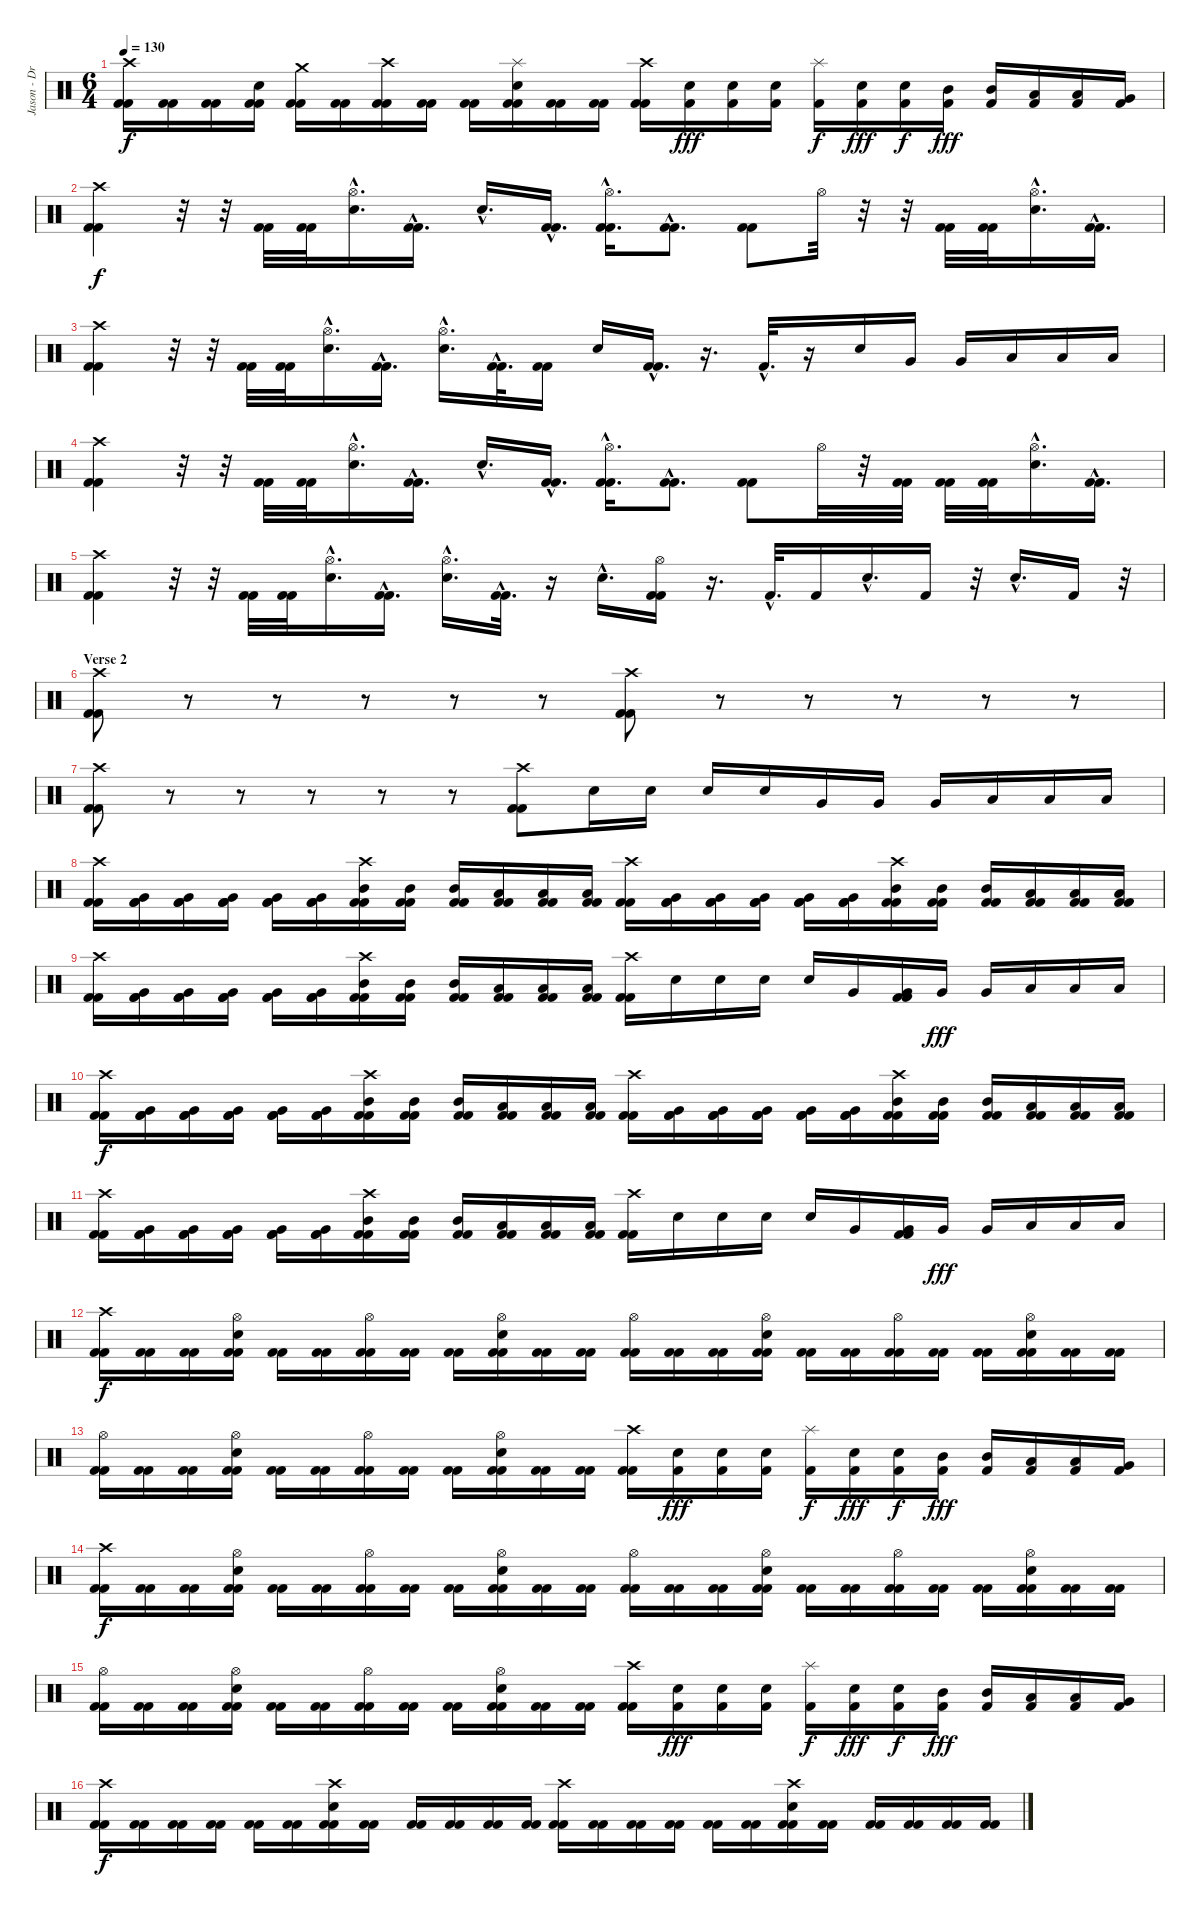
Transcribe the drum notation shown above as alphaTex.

\track ("Jason - Drums" "Jason - Dr") {instrument percussion}
\staff {score}
\articulation defaults
\ts (6 4)
\tempo 130
\clef neutral
\ks c
("Crash high (hit)" "Kick (hit) 2" "Kick (hit) 2").16{dy f} ("Kick (hit) 2" "Kick (hit) 2").16 ("Kick (hit) 2" "Kick (hit) 2").16 ("Electric Snare (hit)" "Kick (hit) 2" "Kick (hit) 2").16 ("Crash medium (hit)" "Kick (hit) 2" "Kick (hit) 2").16 ("Kick (hit) 2" "Kick (hit) 2").16 ("Crash high (hit)" "Kick (hit) 2" "Kick (hit) 2").16 ("Kick (hit) 2" "Kick (hit) 2").16 ("Kick (hit) 2" "Kick (hit) 2").16 ("Splash (hit)" "Electric Snare (hit)" "Kick (hit) 2" "Kick (hit) 2").16 ("Kick (hit) 2" "Kick (hit) 2").16 ("Kick (hit) 2" "Kick (hit) 2").16 ("Crash high (hit)" "Kick (hit) 2" "Kick (hit) 2").16 ("Electric Snare (hit)" "Kick (hit) 2").16{dy fff} ("Electric Snare (hit)" "Kick (hit) 2").16 ("Electric Snare (hit)" "Kick (hit) 2").16 ("Splash (hit)" "Kick (hit) 2").16{dy f} ("Electric Snare (hit)" "Kick (hit) 2").16{dy fff} ("Electric Snare (hit)" "Kick (hit) 2").16{dy f} ("Mid Tom (hit)" "Kick (hit) 2").16{dy fff} ("Mid Tom (hit)" "Kick (hit) 2").16 ("Low Tom (hit)" "Kick (hit) 2").16 ("Low Tom (hit)" "Kick (hit) 2").16 ("Very Low Tom (hit)" "Kick (hit) 2").16 |
("Crash high (hit)" "Kick (hit) 2" "Kick (hit) 2").4{dy f} r.32 r.32 ("Kick (hit) 2" "Kick (hit) 2").32 ("Kick (hit) 2" "Kick (hit) 2").32 ("Hi-Hat (open)"{hac} "Electric Snare (hit)"{hac}).16{d} ("Kick (hit) 2"{hac} "Kick (hit) 2"{hac}).16{d} "Electric Snare (hit)"{hac}.16{d} ("Kick (hit) 2"{hac} "Kick (hit) 2"{hac}).16{d} ("Hi-Hat (open)"{hac} "Kick (hit) 2"{hac} "Kick (hit) 2"{hac}).16{d} ("Kick (hit) 2"{hac} "Kick (hit) 2"{hac}).8{d} ("Kick (hit) 2" "Kick (hit) 2").8 "Hi-Hat (open)".32 r.32 r.32 ("Kick (hit) 2" "Kick (hit) 2").32 ("Kick (hit) 2" "Kick (hit) 2").32 ("Hi-Hat (open)"{hac} "Electric Snare (hit)"{hac}).16{d} ("Kick (hit) 2"{hac} "Kick (hit) 2"{hac}).16{d} |
("Crash high (hit)" "Kick (hit) 2" "Kick (hit) 2").4 r.32 r.32 ("Kick (hit) 2" "Kick (hit) 2").32 ("Kick (hit) 2" "Kick (hit) 2").32 ("Hi-Hat (open)"{hac} "Electric Snare (hit)"{hac}).16{d} ("Kick (hit) 2"{hac} "Kick (hit) 2"{hac}).16{d} ("Hi-Hat (open)"{hac} "Electric Snare (hit)"{hac}).16{d} ("Kick (hit) 2"{hac} "Kick (hit) 2"{hac}).32{d} ("Kick (hit) 2" "Kick (hit) 2").16 "Electric Snare (hit)".16 ("Kick (hit) 2"{hac} "Kick (hit) 2"{hac}).16{d} r.16{d} "Kick (hit) 2"{hac}.32{d} r.16 "Electric Snare (hit)".16 "Very Low Tom (hit)".16 "Very Low Tom (hit)".16 "Low Floor Tom (hit)".16 "Low Floor Tom (hit)".16 "Low Floor Tom (hit)".16 |
("Crash high (hit)" "Kick (hit) 2" "Kick (hit) 2").4 r.32 r.32 ("Kick (hit) 2" "Kick (hit) 2").32 ("Kick (hit) 2" "Kick (hit) 2").32 ("Hi-Hat (open)"{hac} "Electric Snare (hit)"{hac}).16{d} ("Kick (hit) 2"{hac} "Kick (hit) 2"{hac}).16{d} "Electric Snare (hit)"{hac}.16{d} ("Kick (hit) 2"{hac} "Kick (hit) 2"{hac}).16{d} ("Hi-Hat (open)"{hac} "Kick (hit) 2"{hac} "Kick (hit) 2"{hac}).16{d} ("Kick (hit) 2"{hac} "Kick (hit) 2"{hac}).8{d} ("Kick (hit) 2" "Kick (hit) 2").8 "Hi-Hat (open)".32 r.32 ("Kick (hit) 2" "Kick (hit) 2").32 ("Kick (hit) 2" "Kick (hit) 2").32 ("Kick (hit) 2" "Kick (hit) 2").32 ("Hi-Hat (open)"{hac} "Electric Snare (hit)"{hac}).16{d} ("Kick (hit) 2"{hac} "Kick (hit) 2"{hac}).16{d} |
("Crash high (hit)" "Kick (hit) 2" "Kick (hit) 2").4 r.32 r.32 ("Kick (hit) 2" "Kick (hit) 2").32 ("Kick (hit) 2" "Kick (hit) 2").32 ("Hi-Hat (open)"{hac} "Electric Snare (hit)"{hac}).16{d} ("Kick (hit) 2"{hac} "Kick (hit) 2"{hac}).16{d} ("Hi-Hat (open)"{hac} "Electric Snare (hit)"{hac}).16{d} ("Kick (hit) 2"{hac} "Kick (hit) 2"{hac}).32{d} r.16 "Electric Snare (hit)"{hac}.16{d} ("Hi-Hat (open)" "Kick (hit) 2" "Kick (hit) 2").16 r.16{d} "Kick (hit) 2"{hac}.32{d} "Kick (hit) 2".16 "Electric Snare (hit)"{hac}.16{d} "Kick (hit) 2".16 r.32 "Electric Snare (hit)"{hac}.16{d} "Kick (hit) 2".16 r.32 |
\section ("" "Verse 2")
("Crash high (hit)" "Kick (hit) 2" "Kick (hit) 2").8 r.8 r.8 r.8 r.8 r.8 ("Crash high (hit)" "Kick (hit) 2" "Kick (hit) 2").8 r.8 r.8 r.8 r.8 r.8 |
("Crash high (hit)" "Kick (hit) 2" "Kick (hit) 2").8 r.8 r.8 r.8 r.8 r.8 ("Crash high (hit)" "Kick (hit) 2" "Kick (hit) 2").8 "Snare (hit) 2".16 "Snare (hit) 2".16 "Snare (hit) 2".16 "Snare (hit) 2".16 "Very Low Tom (hit)".16 "Very Low Tom (hit)".16 "Very Low Tom (hit)".16 "Low Floor Tom (hit)".16 "Low Floor Tom (hit)".16 "Low Floor Tom (hit)".16 |
("Crash high (hit)" "Kick (hit) 2" "Kick (hit) 2").16 ("Very Low Tom (hit)" "Kick (hit) 2" "Kick (hit) 2").16 ("Very Low Tom (hit)" "Kick (hit) 2" "Kick (hit) 2").16 ("Very Low Tom (hit)" "Kick (hit) 2" "Kick (hit) 2").16 ("Very Low Tom (hit)" "Kick (hit) 2" "Kick (hit) 2").16 ("Very Low Tom (hit)" "Kick (hit) 2" "Kick (hit) 2").16 ("Crash high (hit)" "Mid Tom (hit)" "Kick (hit) 2" "Kick (hit) 2").16 ("Mid Tom (hit)" "Kick (hit) 2" "Kick (hit) 2").16 ("Mid Tom (hit)" "Kick (hit) 2" "Kick (hit) 2").16 ("Low Tom (hit)" "Kick (hit) 2" "Kick (hit) 2").16 ("Low Tom (hit)" "Kick (hit) 2" "Kick (hit) 2").16 ("Low Tom (hit)" "Kick (hit) 2" "Kick (hit) 2").16 ("Crash high (hit)" "Kick (hit) 2" "Kick (hit) 2").16 ("Very Low Tom (hit)" "Kick (hit) 2" "Kick (hit) 2").16 ("Very Low Tom (hit)" "Kick (hit) 2" "Kick (hit) 2").16 ("Very Low Tom (hit)" "Kick (hit) 2" "Kick (hit) 2").16 ("Very Low Tom (hit)" "Kick (hit) 2" "Kick (hit) 2").16 ("Very Low Tom (hit)" "Kick (hit) 2" "Kick (hit) 2").16 ("Crash high (hit)" "Mid Tom (hit)" "Kick (hit) 2" "Kick (hit) 2").16 ("Mid Tom (hit)" "Kick (hit) 2" "Kick (hit) 2").16 ("Mid Tom (hit)" "Kick (hit) 2" "Kick (hit) 2").16 ("Low Tom (hit)" "Kick (hit) 2" "Kick (hit) 2").16 ("Low Tom (hit)" "Kick (hit) 2" "Kick (hit) 2").16 ("Low Tom (hit)" "Kick (hit) 2" "Kick (hit) 2").16 |
("Crash high (hit)" "Kick (hit) 2" "Kick (hit) 2").16 ("Very Low Tom (hit)" "Kick (hit) 2" "Kick (hit) 2").16 ("Very Low Tom (hit)" "Kick (hit) 2" "Kick (hit) 2").16 ("Very Low Tom (hit)" "Kick (hit) 2" "Kick (hit) 2").16 ("Very Low Tom (hit)" "Kick (hit) 2" "Kick (hit) 2").16 ("Very Low Tom (hit)" "Kick (hit) 2" "Kick (hit) 2").16 ("Crash high (hit)" "Mid Tom (hit)" "Kick (hit) 2" "Kick (hit) 2").16 ("Mid Tom (hit)" "Kick (hit) 2" "Kick (hit) 2").16 ("Mid Tom (hit)" "Kick (hit) 2" "Kick (hit) 2").16 ("Low Tom (hit)" "Kick (hit) 2" "Kick (hit) 2").16 ("Low Tom (hit)" "Kick (hit) 2" "Kick (hit) 2").16 ("Low Tom (hit)" "Kick (hit) 2" "Kick (hit) 2").16 ("Crash high (hit)" "Kick (hit) 2" "Kick (hit) 2").16 "Electric Snare (hit)".16 "Electric Snare (hit)".16 "Electric Snare (hit)".16 "Electric Snare (hit)".16 "Very Low Tom (hit)".16 ("Very Low Tom (hit)" "Kick (hit) 2" "Kick (hit) 2").16 "Very Low Tom (hit)".16{dy fff} "Very Low Tom (hit)".16 "Low Floor Tom (hit)".16 "Low Floor Tom (hit)".16 "Low Floor Tom (hit)".16 |
("Crash high (hit)" "Kick (hit) 2" "Kick (hit) 2").16{dy f} ("Very Low Tom (hit)" "Kick (hit) 2" "Kick (hit) 2").16 ("Very Low Tom (hit)" "Kick (hit) 2" "Kick (hit) 2").16 ("Very Low Tom (hit)" "Kick (hit) 2" "Kick (hit) 2").16 ("Very Low Tom (hit)" "Kick (hit) 2" "Kick (hit) 2").16 ("Very Low Tom (hit)" "Kick (hit) 2" "Kick (hit) 2").16 ("Crash high (hit)" "Mid Tom (hit)" "Kick (hit) 2" "Kick (hit) 2").16 ("Mid Tom (hit)" "Kick (hit) 2" "Kick (hit) 2").16 ("Mid Tom (hit)" "Kick (hit) 2" "Kick (hit) 2").16 ("Low Tom (hit)" "Kick (hit) 2" "Kick (hit) 2").16 ("Low Tom (hit)" "Kick (hit) 2" "Kick (hit) 2").16 ("Low Tom (hit)" "Kick (hit) 2" "Kick (hit) 2").16 ("Crash high (hit)" "Kick (hit) 2" "Kick (hit) 2").16 ("Very Low Tom (hit)" "Kick (hit) 2" "Kick (hit) 2").16 ("Very Low Tom (hit)" "Kick (hit) 2" "Kick (hit) 2").16 ("Very Low Tom (hit)" "Kick (hit) 2" "Kick (hit) 2").16 ("Very Low Tom (hit)" "Kick (hit) 2" "Kick (hit) 2").16 ("Very Low Tom (hit)" "Kick (hit) 2" "Kick (hit) 2").16 ("Crash high (hit)" "Mid Tom (hit)" "Kick (hit) 2" "Kick (hit) 2").16 ("Mid Tom (hit)" "Kick (hit) 2" "Kick (hit) 2").16 ("Mid Tom (hit)" "Kick (hit) 2" "Kick (hit) 2").16 ("Low Tom (hit)" "Kick (hit) 2" "Kick (hit) 2").16 ("Low Tom (hit)" "Kick (hit) 2" "Kick (hit) 2").16 ("Low Tom (hit)" "Kick (hit) 2" "Kick (hit) 2").16 |
("Crash high (hit)" "Kick (hit) 2" "Kick (hit) 2").16 ("Very Low Tom (hit)" "Kick (hit) 2" "Kick (hit) 2").16 ("Very Low Tom (hit)" "Kick (hit) 2" "Kick (hit) 2").16 ("Very Low Tom (hit)" "Kick (hit) 2" "Kick (hit) 2").16 ("Very Low Tom (hit)" "Kick (hit) 2" "Kick (hit) 2").16 ("Very Low Tom (hit)" "Kick (hit) 2" "Kick (hit) 2").16 ("Crash high (hit)" "Mid Tom (hit)" "Kick (hit) 2" "Kick (hit) 2").16 ("Mid Tom (hit)" "Kick (hit) 2" "Kick (hit) 2").16 ("Mid Tom (hit)" "Kick (hit) 2" "Kick (hit) 2").16 ("Low Tom (hit)" "Kick (hit) 2" "Kick (hit) 2").16 ("Low Tom (hit)" "Kick (hit) 2" "Kick (hit) 2").16 ("Low Tom (hit)" "Kick (hit) 2" "Kick (hit) 2").16 ("Crash high (hit)" "Kick (hit) 2" "Kick (hit) 2").16 "Electric Snare (hit)".16 "Electric Snare (hit)".16 "Electric Snare (hit)".16 "Electric Snare (hit)".16 "Very Low Tom (hit)".16 ("Very Low Tom (hit)" "Kick (hit) 2" "Kick (hit) 2").16 "Very Low Tom (hit)".16{dy fff} "Very Low Tom (hit)".16 "Low Floor Tom (hit)".16 "Low Floor Tom (hit)".16 "Low Floor Tom (hit)".16 |
("Crash high (hit)" "Kick (hit) 2" "Kick (hit) 2").16{dy f} ("Kick (hit) 2" "Kick (hit) 2").16 ("Kick (hit) 2" "Kick (hit) 2").16 ("Hi-Hat (open)" "Electric Snare (hit)" "Kick (hit) 2" "Kick (hit) 2").16 ("Kick (hit) 2" "Kick (hit) 2").16 ("Kick (hit) 2" "Kick (hit) 2").16 ("Hi-Hat (open)" "Kick (hit) 2" "Kick (hit) 2").16 ("Kick (hit) 2" "Kick (hit) 2").16 ("Kick (hit) 2" "Kick (hit) 2").16 ("Hi-Hat (open)" "Electric Snare (hit)" "Kick (hit) 2" "Kick (hit) 2").16 ("Kick (hit) 2" "Kick (hit) 2").16 ("Kick (hit) 2" "Kick (hit) 2").16 ("Hi-Hat (open)" "Kick (hit) 2" "Kick (hit) 2").16 ("Kick (hit) 2" "Kick (hit) 2").16 ("Kick (hit) 2" "Kick (hit) 2").16 ("Hi-Hat (open)" "Electric Snare (hit)" "Kick (hit) 2" "Kick (hit) 2").16 ("Kick (hit) 2" "Kick (hit) 2").16 ("Kick (hit) 2" "Kick (hit) 2").16 ("Hi-Hat (open)" "Kick (hit) 2" "Kick (hit) 2").16 ("Kick (hit) 2" "Kick (hit) 2").16 ("Kick (hit) 2" "Kick (hit) 2").16 ("Hi-Hat (open)" "Electric Snare (hit)" "Kick (hit) 2" "Kick (hit) 2").16 ("Kick (hit) 2" "Kick (hit) 2").16 ("Kick (hit) 2" "Kick (hit) 2").16 |
("Hi-Hat (open)" "Kick (hit) 2" "Kick (hit) 2").16 ("Kick (hit) 2" "Kick (hit) 2").16 ("Kick (hit) 2" "Kick (hit) 2").16 ("Hi-Hat (open)" "Electric Snare (hit)" "Kick (hit) 2" "Kick (hit) 2").16 ("Kick (hit) 2" "Kick (hit) 2").16 ("Kick (hit) 2" "Kick (hit) 2").16 ("Hi-Hat (open)" "Kick (hit) 2" "Kick (hit) 2").16 ("Kick (hit) 2" "Kick (hit) 2").16 ("Kick (hit) 2" "Kick (hit) 2").16 ("Hi-Hat (open)" "Electric Snare (hit)" "Kick (hit) 2" "Kick (hit) 2").16 ("Kick (hit) 2" "Kick (hit) 2").16 ("Kick (hit) 2" "Kick (hit) 2").16 ("Crash high (hit)" "Kick (hit) 2" "Kick (hit) 2").16 ("Electric Snare (hit)" "Kick (hit) 2").16{dy fff} ("Electric Snare (hit)" "Kick (hit) 2").16 ("Electric Snare (hit)" "Kick (hit) 2").16 ("Splash (hit)" "Kick (hit) 2").16{dy f} ("Electric Snare (hit)" "Kick (hit) 2").16{dy fff} ("Electric Snare (hit)" "Kick (hit) 2").16{dy f} ("Mid Tom (hit)" "Kick (hit) 2").16{dy fff} ("Mid Tom (hit)" "Kick (hit) 2").16 ("Low Tom (hit)" "Kick (hit) 2").16 ("Low Tom (hit)" "Kick (hit) 2").16 ("Very Low Tom (hit)" "Kick (hit) 2").16 |
("Crash high (hit)" "Kick (hit) 2" "Kick (hit) 2").16{dy f} ("Kick (hit) 2" "Kick (hit) 2").16 ("Kick (hit) 2" "Kick (hit) 2").16 ("Hi-Hat (open)" "Electric Snare (hit)" "Kick (hit) 2" "Kick (hit) 2").16 ("Kick (hit) 2" "Kick (hit) 2").16 ("Kick (hit) 2" "Kick (hit) 2").16 ("Hi-Hat (open)" "Kick (hit) 2" "Kick (hit) 2").16 ("Kick (hit) 2" "Kick (hit) 2").16 ("Kick (hit) 2" "Kick (hit) 2").16 ("Hi-Hat (open)" "Electric Snare (hit)" "Kick (hit) 2" "Kick (hit) 2").16 ("Kick (hit) 2" "Kick (hit) 2").16 ("Kick (hit) 2" "Kick (hit) 2").16 ("Hi-Hat (open)" "Kick (hit) 2" "Kick (hit) 2").16 ("Kick (hit) 2" "Kick (hit) 2").16 ("Kick (hit) 2" "Kick (hit) 2").16 ("Hi-Hat (open)" "Electric Snare (hit)" "Kick (hit) 2" "Kick (hit) 2").16 ("Kick (hit) 2" "Kick (hit) 2").16 ("Kick (hit) 2" "Kick (hit) 2").16 ("Hi-Hat (open)" "Kick (hit) 2" "Kick (hit) 2").16 ("Kick (hit) 2" "Kick (hit) 2").16 ("Kick (hit) 2" "Kick (hit) 2").16 ("Hi-Hat (open)" "Electric Snare (hit)" "Kick (hit) 2" "Kick (hit) 2").16 ("Kick (hit) 2" "Kick (hit) 2").16 ("Kick (hit) 2" "Kick (hit) 2").16 |
("Hi-Hat (open)" "Kick (hit) 2" "Kick (hit) 2").16 ("Kick (hit) 2" "Kick (hit) 2").16 ("Kick (hit) 2" "Kick (hit) 2").16 ("Hi-Hat (open)" "Electric Snare (hit)" "Kick (hit) 2" "Kick (hit) 2").16 ("Kick (hit) 2" "Kick (hit) 2").16 ("Kick (hit) 2" "Kick (hit) 2").16 ("Hi-Hat (open)" "Kick (hit) 2" "Kick (hit) 2").16 ("Kick (hit) 2" "Kick (hit) 2").16 ("Kick (hit) 2" "Kick (hit) 2").16 ("Hi-Hat (open)" "Electric Snare (hit)" "Kick (hit) 2" "Kick (hit) 2").16 ("Kick (hit) 2" "Kick (hit) 2").16 ("Kick (hit) 2" "Kick (hit) 2").16 ("Crash high (hit)" "Kick (hit) 2" "Kick (hit) 2").16 ("Electric Snare (hit)" "Kick (hit) 2").16{dy fff} ("Electric Snare (hit)" "Kick (hit) 2").16 ("Electric Snare (hit)" "Kick (hit) 2").16 ("Splash (hit)" "Kick (hit) 2").16{dy f} ("Electric Snare (hit)" "Kick (hit) 2").16{dy fff} ("Electric Snare (hit)" "Kick (hit) 2").16{dy f} ("Mid Tom (hit)" "Kick (hit) 2").16{dy fff} ("Mid Tom (hit)" "Kick (hit) 2").16 ("Low Tom (hit)" "Kick (hit) 2").16 ("Low Tom (hit)" "Kick (hit) 2").16 ("Very Low Tom (hit)" "Kick (hit) 2").16 |
("Crash high (hit)" "Kick (hit) 2" "Kick (hit) 2").16{dy f} ("Kick (hit) 2" "Kick (hit) 2").16 ("Kick (hit) 2" "Kick (hit) 2").16 ("Kick (hit) 2" "Kick (hit) 2").16 ("Kick (hit) 2" "Kick (hit) 2").16 ("Kick (hit) 2" "Kick (hit) 2").16 ("Crash high (hit)" "Electric Snare (hit)" "Kick (hit) 2" "Kick (hit) 2").16 ("Kick (hit) 2" "Kick (hit) 2").16 ("Kick (hit) 2" "Kick (hit) 2").16 ("Kick (hit) 2" "Kick (hit) 2").16 ("Kick (hit) 2" "Kick (hit) 2").16 ("Kick (hit) 2" "Kick (hit) 2").16 ("Crash high (hit)" "Kick (hit) 2" "Kick (hit) 2").16 ("Kick (hit) 2" "Kick (hit) 2").16 ("Kick (hit) 2" "Kick (hit) 2").16 ("Kick (hit) 2" "Kick (hit) 2").16 ("Kick (hit) 2" "Kick (hit) 2").16 ("Kick (hit) 2" "Kick (hit) 2").16 ("Crash high (hit)" "Electric Snare (hit)" "Kick (hit) 2" "Kick (hit) 2").16 ("Kick (hit) 2" "Kick (hit) 2").16 ("Kick (hit) 2" "Kick (hit) 2").16 ("Kick (hit) 2" "Kick (hit) 2").16 ("Kick (hit) 2" "Kick (hit) 2").16 ("Kick (hit) 2" "Kick (hit) 2").16
